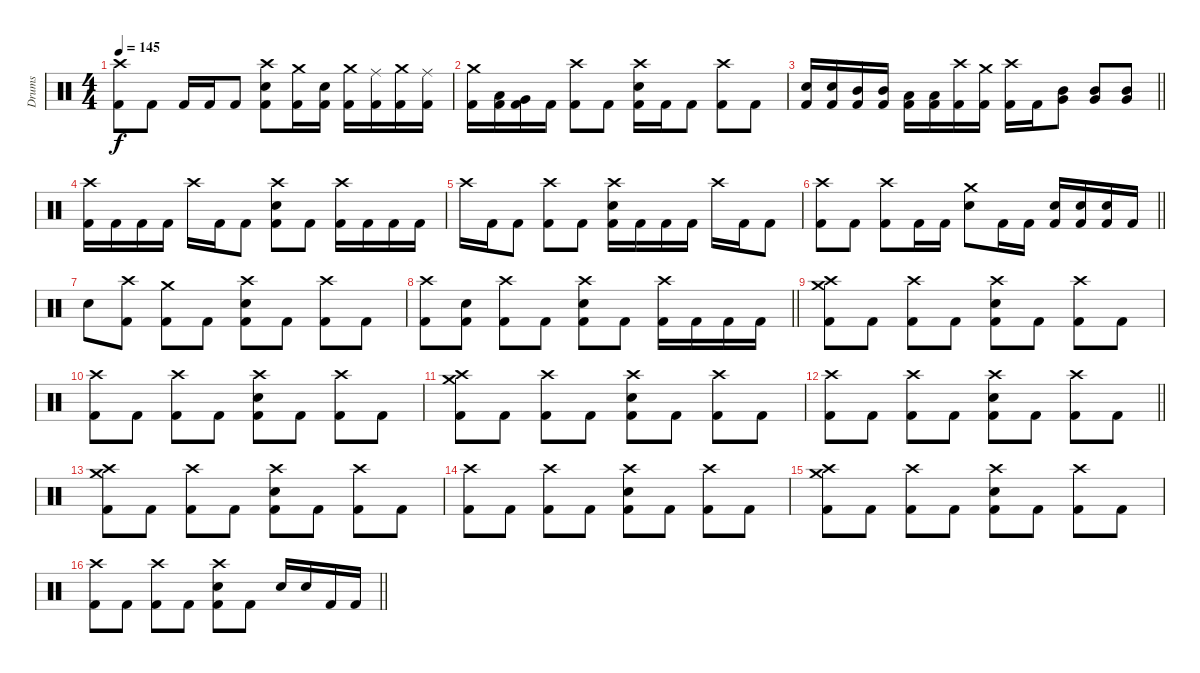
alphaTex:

\track ("Drums" "Drums") {instrument percussion}
\staff {score}
\articulation defaults
\ts (4 4)
\tempo 145
\clef neutral
\ks c
("Crash high (hit)" "Kick (hit) 2").8{dy f} "Kick (hit) 2".8 "Kick (hit) 2".16 "Kick (hit) 2".16 "Kick (hit) 2".8 ("Crash high (hit)" "Electric Snare (hit)" "Kick (hit) 2").8 ("Crash medium (hit)" "Kick (hit) 2").16 ("Electric Snare (hit)" "Kick (hit) 2").16 ("Crash medium (hit)" "Kick (hit) 2").16 ("Ride (middle)" "Kick (hit) 2").16 ("Crash medium (hit)" "Kick (hit) 2").16 ("Ride (middle)" "Kick (hit) 2").16 |
("Crash medium (hit)" "Kick (hit) 2").16 ("Low Tom (hit)" "Kick (hit) 2").16 ("Very Low Tom (hit)" "Kick (hit) 2").16 "Kick (hit) 2".16 ("Crash high (hit)" "Kick (hit) 2").8 "Kick (hit) 2".8 ("Crash high (hit)" "Electric Snare (hit)" "Kick (hit) 2").16 "Kick (hit) 2".16 "Kick (hit) 2".8 ("Crash high (hit)" "Kick (hit) 2").8 "Kick (hit) 2".8 |
\barLineRight lightlight
("Electric Snare (hit)" "Kick (hit) 2").16 ("Electric Snare (hit)" "Kick (hit) 2").16 ("Mid Tom (hit)" "Kick (hit) 2").16 ("Mid Tom (hit)" "Kick (hit) 2").16 ("Low Tom (hit)" "Kick (hit) 2").16 ("Low Tom (hit)" "Kick (hit) 2").16 ("Crash high (hit)" "Kick (hit) 2").16 ("Crash medium (hit)" "Kick (hit) 2").16 ("Crash high (hit)" "Kick (hit) 2").16 "Kick (hit) 2".16 ("Mid Tom (hit)" "Very Low Tom (hit)").8 ("Mid Tom (hit)" "Very Low Tom (hit)").8 ("Mid Tom (hit)" "Very Low Tom (hit)").8 |
("Crash high (hit)" "Kick (hit) 2").16 "Kick (hit) 2".16 "Kick (hit) 2".16 "Kick (hit) 2".16 "Crash high (hit)".16 "Kick (hit) 2".16 "Kick (hit) 2".8 ("Crash high (hit)" "Electric Snare (hit)" "Kick (hit) 2").8 "Kick (hit) 2".8 ("Crash high (hit)" "Kick (hit) 2").16 "Kick (hit) 2".16 "Kick (hit) 2".16 "Kick (hit) 2".16 |
"Crash high (hit)".16 "Kick (hit) 2".16 "Kick (hit) 2".8 ("Crash high (hit)" "Kick (hit) 2").8 "Kick (hit) 2".8 ("Crash high (hit)" "Electric Snare (hit)" "Kick (hit) 2").16 "Kick (hit) 2".16 "Kick (hit) 2".16 "Kick (hit) 2".16 "Crash high (hit)".16 "Kick (hit) 2".16 "Kick (hit) 2".8 |
\barLineRight lightlight
("Crash high (hit)" "Kick (hit) 2").8 "Kick (hit) 2".8 ("Crash high (hit)" "Kick (hit) 2").8 "Kick (hit) 2".16 "Kick (hit) 2".16 ("Crash medium (hit)" "Electric Snare (hit)").8 "Kick (hit) 2".16 "Kick (hit) 2".16 ("Electric Snare (hit)" "Kick (hit) 2").16 ("Electric Snare (hit)" "Kick (hit) 2").16 ("Electric Snare (hit)" "Kick (hit) 2").16 "Kick (hit) 2".16 |
"Electric Snare (hit)".8 ("Crash high (hit)" "Kick (hit) 2").8 ("Crash medium (hit)" "Kick (hit) 2").8 "Kick (hit) 2".8 ("Crash high (hit)" "Electric Snare (hit)" "Kick (hit) 2").8 "Kick (hit) 2".8 ("Crash high (hit)" "Kick (hit) 2").8 "Kick (hit) 2".8 |
\barLineRight lightlight
("Crash high (hit)" "Kick (hit) 2").8 ("Electric Snare (hit)" "Kick (hit) 2").8 ("Crash high (hit)" "Kick (hit) 2").8 "Kick (hit) 2".8 ("Crash high (hit)" "Electric Snare (hit)" "Kick (hit) 2").8 "Kick (hit) 2".8 ("Crash high (hit)" "Kick (hit) 2").16 "Kick (hit) 2".16 "Kick (hit) 2".16 "Kick (hit) 2".16 |
("Crash high (hit)" "Crash medium (hit)" "Kick (hit) 2").8 "Kick (hit) 2".8 ("Crash high (hit)" "Kick (hit) 2").8 "Kick (hit) 2".8 ("Crash high (hit)" "Electric Snare (hit)" "Kick (hit) 2").8 "Kick (hit) 2".8 ("Crash high (hit)" "Kick (hit) 2").8 "Kick (hit) 2".8 |
("Crash high (hit)" "Kick (hit) 2").8 "Kick (hit) 2".8 ("Crash high (hit)" "Kick (hit) 2").8 "Kick (hit) 2".8 ("Crash high (hit)" "Electric Snare (hit)" "Kick (hit) 2").8 "Kick (hit) 2".8 ("Crash high (hit)" "Kick (hit) 2").8 "Kick (hit) 2".8 |
("Crash high (hit)" "Crash medium (hit)" "Kick (hit) 2").8 "Kick (hit) 2".8 ("Crash high (hit)" "Kick (hit) 2").8 "Kick (hit) 2".8 ("Crash high (hit)" "Electric Snare (hit)" "Kick (hit) 2").8 "Kick (hit) 2".8 ("Crash high (hit)" "Kick (hit) 2").8 "Kick (hit) 2".8 |
\barLineRight lightlight
("Crash high (hit)" "Kick (hit) 2").8 "Kick (hit) 2".8 ("Crash high (hit)" "Kick (hit) 2").8 "Kick (hit) 2".8 ("Crash high (hit)" "Electric Snare (hit)" "Kick (hit) 2").8 "Kick (hit) 2".8 ("Crash high (hit)" "Kick (hit) 2").8 "Kick (hit) 2".8 |
("Crash high (hit)" "Crash medium (hit)" "Kick (hit) 2").8 "Kick (hit) 2".8 ("Crash high (hit)" "Kick (hit) 2").8 "Kick (hit) 2".8 ("Crash high (hit)" "Electric Snare (hit)" "Kick (hit) 2").8 "Kick (hit) 2".8 ("Crash high (hit)" "Kick (hit) 2").8 "Kick (hit) 2".8 |
("Crash high (hit)" "Kick (hit) 2").8 "Kick (hit) 2".8 ("Crash high (hit)" "Kick (hit) 2").8 "Kick (hit) 2".8 ("Crash high (hit)" "Electric Snare (hit)" "Kick (hit) 2").8 "Kick (hit) 2".8 ("Crash high (hit)" "Kick (hit) 2").8 "Kick (hit) 2".8 |
("Crash high (hit)" "Crash medium (hit)" "Kick (hit) 2").8 "Kick (hit) 2".8 ("Crash high (hit)" "Kick (hit) 2").8 "Kick (hit) 2".8 ("Crash high (hit)" "Electric Snare (hit)" "Kick (hit) 2").8 "Kick (hit) 2".8 ("Crash high (hit)" "Kick (hit) 2").8 "Kick (hit) 2".8 |
\barLineRight lightlight
("Crash high (hit)" "Kick (hit) 2").8 "Kick (hit) 2".8 ("Crash high (hit)" "Kick (hit) 2").8 "Kick (hit) 2".8 ("Crash high (hit)" "Electric Snare (hit)" "Kick (hit) 2").8 "Kick (hit) 2".8 "Electric Snare (hit)".16 "Electric Snare (hit)".16 "Kick (hit) 2".16 "Kick (hit) 2".16
